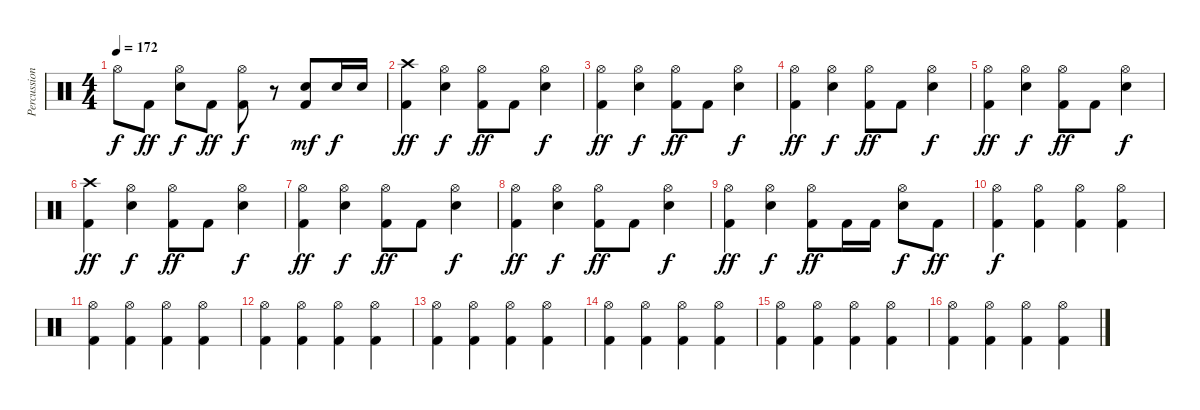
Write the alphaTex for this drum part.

\track ("Percussion" "Percussion") {instrument percussion}
\staff {score}
\articulation defaults
\ts (4 4)
\tempo 172
\clef neutral
\ks c "Hi-Hat (open)".8{dy f} "Kick (hit) 2".8{dy ff}
("Hi-Hat (open)" "Snare (hit) 2").8{dy f} "Kick (hit) 2".8{dy ff} ("Hi-Hat (open)" "Kick (hit) 2").8{dy f} r.8 ("Snare (hit) 2" "Kick (hit) 2").8{dy mf} "Snare (hit) 2".16{dy f} "Snare (hit) 2".16 |
("Crash high (hit)" "Kick (hit) 2").4{dy ff} ("Hi-Hat (open)" "Snare (hit) 2").4{dy f} ("Hi-Hat (open)" "Kick (hit) 2").8{dy ff} "Kick (hit) 2".8 ("Hi-Hat (open)" "Snare (hit) 2").4{dy f} |
("Hi-Hat (open)" "Kick (hit) 2").4{dy ff} ("Hi-Hat (open)" "Snare (hit) 2").4{dy f} ("Hi-Hat (open)" "Kick (hit) 2").8{dy ff} "Kick (hit) 2".8 ("Hi-Hat (open)" "Snare (hit) 2").4{dy f} |
("Hi-Hat (open)" "Kick (hit) 2").4{dy ff} ("Hi-Hat (open)" "Snare (hit) 2").4{dy f} ("Hi-Hat (open)" "Kick (hit) 2").8{dy ff} "Kick (hit) 2".8 ("Hi-Hat (open)" "Snare (hit) 2").4{dy f} |
("Hi-Hat (open)" "Kick (hit) 2").4{dy ff} ("Hi-Hat (open)" "Snare (hit) 2").4{dy f} ("Hi-Hat (open)" "Kick (hit) 2").8{dy ff} "Kick (hit) 2".8 ("Hi-Hat (open)" "Snare (hit) 2").4{dy f} |
("Crash high (hit)" "Kick (hit) 2").4{dy ff} ("Hi-Hat (open)" "Snare (hit) 2").4{dy f} ("Hi-Hat (open)" "Kick (hit) 2").8{dy ff} "Kick (hit) 2".8 ("Hi-Hat (open)" "Snare (hit) 2").4{dy f} |
("Hi-Hat (open)" "Kick (hit) 2").4{dy ff} ("Hi-Hat (open)" "Snare (hit) 2").4{dy f} ("Hi-Hat (open)" "Kick (hit) 2").8{dy ff} "Kick (hit) 2".8 ("Hi-Hat (open)" "Snare (hit) 2").4{dy f} |
("Hi-Hat (open)" "Kick (hit) 2").4{dy ff} ("Hi-Hat (open)" "Snare (hit) 2").4{dy f} ("Hi-Hat (open)" "Kick (hit) 2").8{dy ff} "Kick (hit) 2".8 ("Hi-Hat (open)" "Snare (hit) 2").4{dy f} |
("Hi-Hat (open)" "Kick (hit) 2").4{dy ff} ("Hi-Hat (open)" "Snare (hit) 2").4{dy f} ("Hi-Hat (open)" "Kick (hit) 2").8{dy ff} "Kick (hit) 2".16 "Kick (hit) 2".16 ("Hi-Hat (open)" "Snare (hit) 2").8{dy f} "Kick (hit) 2".8{dy ff} |
("Hi-Hat (open)" "Kick (hit) 2").4{dy f} ("Hi-Hat (open)" "Kick (hit) 2").4 ("Hi-Hat (open)" "Kick (hit) 2").4 ("Hi-Hat (open)" "Kick (hit) 2").4 |
("Hi-Hat (open)" "Kick (hit) 2").4 ("Hi-Hat (open)" "Kick (hit) 2").4 ("Hi-Hat (open)" "Kick (hit) 2").4 ("Hi-Hat (open)" "Kick (hit) 2").4 |
("Hi-Hat (open)" "Kick (hit) 2").4 ("Hi-Hat (open)" "Kick (hit) 2").4 ("Hi-Hat (open)" "Kick (hit) 2").4 ("Hi-Hat (open)" "Kick (hit) 2").4 |
("Hi-Hat (open)" "Kick (hit) 2").4 ("Hi-Hat (open)" "Kick (hit) 2").4 ("Hi-Hat (open)" "Kick (hit) 2").4 ("Hi-Hat (open)" "Kick (hit) 2").4 |
("Hi-Hat (open)" "Kick (hit) 2").4 ("Hi-Hat (open)" "Kick (hit) 2").4 ("Hi-Hat (open)" "Kick (hit) 2").4 ("Hi-Hat (open)" "Kick (hit) 2").4 |
("Hi-Hat (open)" "Kick (hit) 2").4 ("Hi-Hat (open)" "Kick (hit) 2").4 ("Hi-Hat (open)" "Kick (hit) 2").4 ("Hi-Hat (open)" "Kick (hit) 2").4 |
("Hi-Hat (open)" "Kick (hit) 2").4 ("Hi-Hat (open)" "Kick (hit) 2").4 ("Hi-Hat (open)" "Kick (hit) 2").4 ("Hi-Hat (open)" "Kick (hit) 2").4
